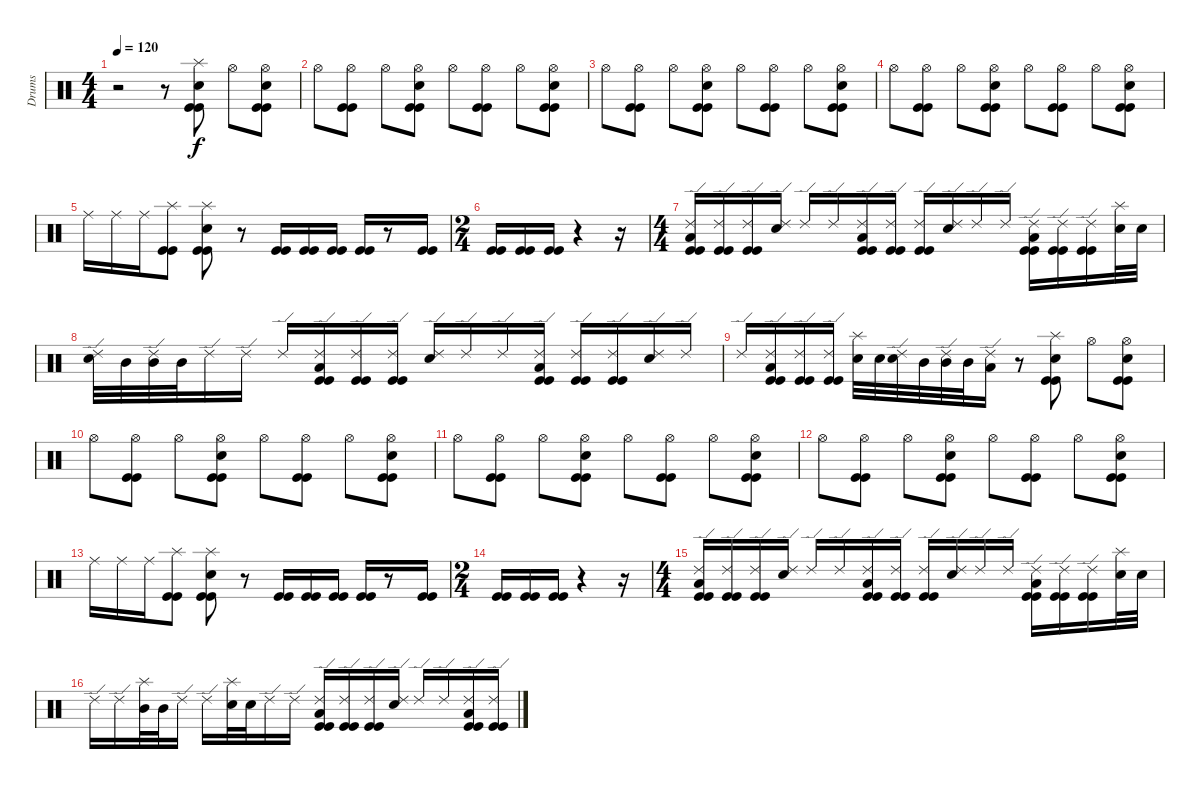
\track ("Drums" "Drums") {instrument percussion}
\staff {score}
\articulation defaults
\ts (4 4)
\tempo 120
\clef neutral
\ks c
r.2{dy f} r.8 ("Splash (hit)" "Electric Snare (hit)" "Kick (hit)" "Kick (hit)").8 "Hi-Hat (open)".8 ("Hi-Hat (open)" "Electric Snare (hit)" "Kick (hit)" "Kick (hit)").8 |
"Hi-Hat (open)".8 ("Hi-Hat (open)" "Kick (hit)" "Kick (hit)").8 "Hi-Hat (open)".8 ("Hi-Hat (open)" "Electric Snare (hit)" "Kick (hit)" "Kick (hit)").8 "Hi-Hat (open)".8 ("Hi-Hat (open)" "Kick (hit)" "Kick (hit)").8 "Hi-Hat (open)".8 ("Hi-Hat (open)" "Electric Snare (hit)" "Kick (hit)" "Kick (hit)").8 |
"Hi-Hat (open)".8 ("Hi-Hat (open)" "Kick (hit)" "Kick (hit)").8 "Hi-Hat (open)".8 ("Hi-Hat (open)" "Electric Snare (hit)" "Kick (hit)" "Kick (hit)").8 "Hi-Hat (open)".8 ("Hi-Hat (open)" "Kick (hit)" "Kick (hit)").8 "Hi-Hat (open)".8 ("Hi-Hat (open)" "Electric Snare (hit)" "Kick (hit)" "Kick (hit)").8 |
"Hi-Hat (open)".8 ("Hi-Hat (open)" "Kick (hit)" "Kick (hit)").8 "Hi-Hat (open)".8 ("Hi-Hat (open)" "Electric Snare (hit)" "Kick (hit)" "Kick (hit)").8 "Hi-Hat (open)".8 ("Hi-Hat (open)" "Kick (hit)" "Kick (hit)").8 "Hi-Hat (open)".8 ("Hi-Hat (open)" "Electric Snare (hit)" "Kick (hit)" "Kick (hit)").8 |
"Ride (middle)".16 "Ride (middle)".16 "Ride (middle)".16 ("Splash (hit)" "Kick (hit)" "Kick (hit)").8 ("Splash (hit)" "Electric Snare (hit)" "Kick (hit)" "Kick (hit)").8 r.8 ("Kick (hit)" "Kick (hit)").16 ("Kick (hit)" "Kick (hit)").16 ("Kick (hit)" "Kick (hit)").16 ("Kick (hit)" "Kick (hit)").16 r.8 ("Kick (hit)" "Kick (hit)").16 |
\ts (2 4)
("Kick (hit)" "Kick (hit)").16 ("Kick (hit)" "Kick (hit)").16 ("Kick (hit)" "Kick (hit)").16 r.4 r.16 |
\ts (4 4)
("Ride (edge) 2" "Low Floor Tom (hit)" "Kick (hit)" "Kick (hit)").16 ("Ride (edge) 2" "Kick (hit)" "Kick (hit)").16 ("Ride (edge) 2" "Kick (hit)" "Kick (hit)").16 ("Ride (edge) 2" "Electric Snare (hit)").16 "Ride (edge) 2".16 "Ride (edge) 2".16 ("Ride (edge) 2" "Low Floor Tom (hit)" "Kick (hit)" "Kick (hit)").16 ("Ride (edge) 2" "Kick (hit)" "Kick (hit)").16 ("Ride (edge) 2" "Kick (hit)" "Kick (hit)").16 ("Ride (edge) 2" "Electric Snare (hit)").16 "Ride (edge) 2".16 "Ride (edge) 2".16 ("Ride (edge) 2" "Low Floor Tom (hit)" "Kick (hit)" "Kick (hit)").16 ("Ride (edge) 2" "Kick (hit)" "Kick (hit)").16 ("Ride (edge) 2" "Kick (hit)" "Kick (hit)").16 ("Splash (hit)" "Electric Snare (hit)").32 "Electric Snare (hit)".32 |
("Ride (edge) 2" "Electric Snare (hit)").32 "Mid Tom (hit)".32 ("Ride (edge) 2" "Mid Tom (hit)").32 "Mid Tom (hit)".32 "Ride (edge) 2".16 "Ride (edge) 2".16 "Ride (edge) 2".16 ("Ride (edge) 2" "Low Floor Tom (hit)" "Kick (hit)" "Kick (hit)").16 ("Ride (edge) 2" "Kick (hit)" "Kick (hit)").16 ("Ride (edge) 2" "Kick (hit)" "Kick (hit)").16 ("Ride (edge) 2" "Electric Snare (hit)").16 "Ride (edge) 2".16 "Ride (edge) 2".16 ("Ride (edge) 2" "Low Floor Tom (hit)" "Kick (hit)" "Kick (hit)").16 ("Ride (edge) 2" "Kick (hit)" "Kick (hit)").16 ("Ride (edge) 2" "Kick (hit)" "Kick (hit)").16 ("Ride (edge) 2" "Electric Snare (hit)").16 "Ride (edge) 2".16 |
"Ride (edge) 2".16 ("Ride (edge) 2" "Low Floor Tom (hit)" "Kick (hit)" "Kick (hit)").16 ("Ride (edge) 2" "Kick (hit)" "Kick (hit)").16 ("Ride (edge) 2" "Kick (hit)" "Kick (hit)").16 ("Splash (hit)" "Electric Snare (hit)").32 "Electric Snare (hit)".32 ("Ride (edge) 2" "Electric Snare (hit)").32 "Mid Tom (hit)".32 ("Ride (edge) 2" "Mid Tom (hit)").32 "Mid Tom (hit)".32 ("Ride (edge) 2" "Low Floor Tom (hit)").16 r.8 ("Splash (hit)" "Electric Snare (hit)" "Kick (hit)" "Kick (hit)").8 "Hi-Hat (open)".8 ("Hi-Hat (open)" "Electric Snare (hit)" "Kick (hit)" "Kick (hit)").8 |
"Hi-Hat (open)".8 ("Hi-Hat (open)" "Kick (hit)" "Kick (hit)").8 "Hi-Hat (open)".8 ("Hi-Hat (open)" "Electric Snare (hit)" "Kick (hit)" "Kick (hit)").8 "Hi-Hat (open)".8 ("Hi-Hat (open)" "Kick (hit)" "Kick (hit)").8 "Hi-Hat (open)".8 ("Hi-Hat (open)" "Electric Snare (hit)" "Kick (hit)" "Kick (hit)").8 |
"Hi-Hat (open)".8 ("Hi-Hat (open)" "Kick (hit)" "Kick (hit)").8 "Hi-Hat (open)".8 ("Hi-Hat (open)" "Electric Snare (hit)" "Kick (hit)" "Kick (hit)").8 "Hi-Hat (open)".8 ("Hi-Hat (open)" "Kick (hit)" "Kick (hit)").8 "Hi-Hat (open)".8 ("Hi-Hat (open)" "Electric Snare (hit)" "Kick (hit)" "Kick (hit)").8 |
"Hi-Hat (open)".8 ("Hi-Hat (open)" "Kick (hit)" "Kick (hit)").8 "Hi-Hat (open)".8 ("Hi-Hat (open)" "Electric Snare (hit)" "Kick (hit)" "Kick (hit)").8 "Hi-Hat (open)".8 ("Hi-Hat (open)" "Kick (hit)" "Kick (hit)").8 "Hi-Hat (open)".8 ("Hi-Hat (open)" "Electric Snare (hit)" "Kick (hit)" "Kick (hit)").8 |
"Ride (middle)".16 "Ride (middle)".16 "Ride (middle)".16 ("Splash (hit)" "Kick (hit)" "Kick (hit)").8 ("Splash (hit)" "Electric Snare (hit)" "Kick (hit)" "Kick (hit)").8 r.8 ("Kick (hit)" "Kick (hit)").16 ("Kick (hit)" "Kick (hit)").16 ("Kick (hit)" "Kick (hit)").16 ("Kick (hit)" "Kick (hit)").16 r.8 ("Kick (hit)" "Kick (hit)").16 |
\ts (2 4)
("Kick (hit)" "Kick (hit)").16 ("Kick (hit)" "Kick (hit)").16 ("Kick (hit)" "Kick (hit)").16 r.4 r.16 |
\ts (4 4)
("Ride (edge) 2" "Low Floor Tom (hit)" "Kick (hit)" "Kick (hit)").16 ("Ride (edge) 2" "Kick (hit)" "Kick (hit)").16 ("Ride (edge) 2" "Kick (hit)" "Kick (hit)").16 ("Ride (edge) 2" "Electric Snare (hit)").16 "Ride (edge) 2".16 "Ride (edge) 2".16 ("Ride (edge) 2" "Low Floor Tom (hit)" "Kick (hit)" "Kick (hit)").16 ("Ride (edge) 2" "Kick (hit)" "Kick (hit)").16 ("Ride (edge) 2" "Kick (hit)" "Kick (hit)").16 ("Ride (edge) 2" "Electric Snare (hit)").16 "Ride (edge) 2".16 "Ride (edge) 2".16 ("Ride (edge) 2" "Low Floor Tom (hit)" "Kick (hit)" "Kick (hit)").16 ("Ride (edge) 2" "Kick (hit)" "Kick (hit)").16 ("Ride (edge) 2" "Kick (hit)" "Kick (hit)").16 ("Splash (hit)" "Electric Snare (hit)").32 "Electric Snare (hit)".32 |
"Ride (edge) 2".16 "Ride (edge) 2".16 ("Splash (hit)" "Mid Tom (hit)").32 "Mid Tom (hit)".32 "Ride (edge) 2".16 "Ride (edge) 2".16 ("Splash (hit)" "Electric Snare (hit)").32 "Electric Snare (hit)".32 "Ride (edge) 2".16 "Ride (edge) 2".16 ("Ride (edge) 2" "Low Floor Tom (hit)" "Kick (hit)" "Kick (hit)").16 ("Ride (edge) 2" "Kick (hit)" "Kick (hit)").16 ("Ride (edge) 2" "Kick (hit)" "Kick (hit)").16 ("Ride (edge) 2" "Electric Snare (hit)").16 "Ride (edge) 2".16 "Ride (edge) 2".16 ("Ride (edge) 2" "Low Floor Tom (hit)" "Kick (hit)" "Kick (hit)").16 ("Ride (edge) 2" "Kick (hit)" "Kick (hit)").16
